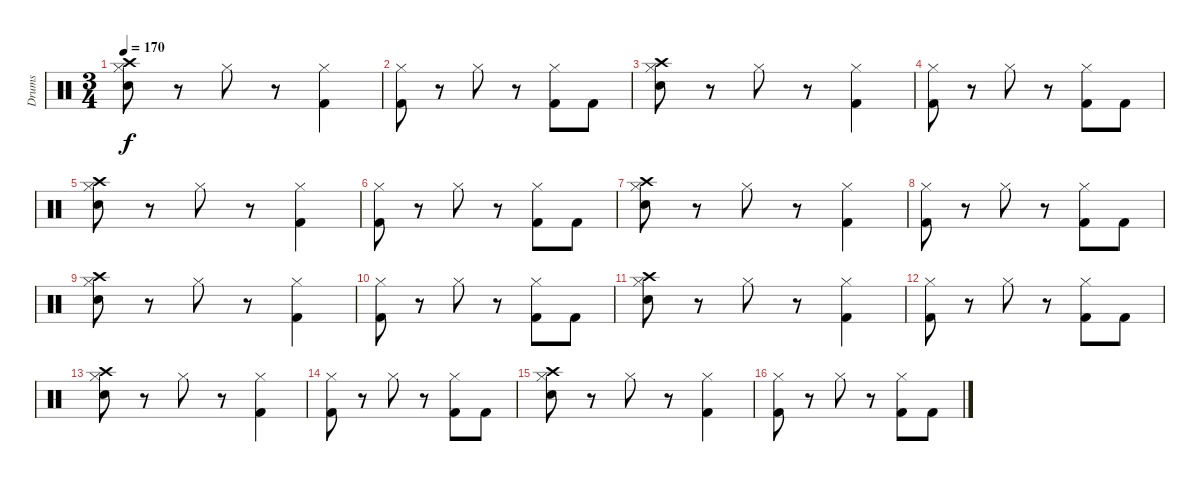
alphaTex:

\track ("Drums" "Drums") {instrument percussion}
\staff {score}
\articulation defaults
\ts (3 4)
\tempo 170
\clef neutral
\ks c
("Hi-Hat (closed)" "Electric Snare (hit)" "Crash high (hit)").8{dy f} r.8 "Hi-Hat (closed)".8 r.8 ("Hi-Hat (closed)" "Kick (hit) 2").4 |
("Hi-Hat (closed)" "Kick (hit) 2").8 r.8 "Hi-Hat (closed)".8 r.8 ("Hi-Hat (closed)" "Kick (hit) 2").8 "Kick (hit) 2".8 |
("Hi-Hat (closed)" "Electric Snare (hit)" "Crash high (hit)").8 r.8 "Hi-Hat (closed)".8 r.8 ("Hi-Hat (closed)" "Kick (hit) 2").4 |
("Hi-Hat (closed)" "Kick (hit) 2").8 r.8 "Hi-Hat (closed)".8 r.8 ("Hi-Hat (closed)" "Kick (hit) 2").8 "Kick (hit) 2".8 |
("Hi-Hat (closed)" "Electric Snare (hit)" "Crash high (hit)").8 r.8 "Hi-Hat (closed)".8 r.8 ("Hi-Hat (closed)" "Kick (hit) 2").4 |
("Hi-Hat (closed)" "Kick (hit) 2").8 r.8 "Hi-Hat (closed)".8 r.8 ("Hi-Hat (closed)" "Kick (hit) 2").8 "Kick (hit) 2".8 |
("Hi-Hat (closed)" "Electric Snare (hit)" "Crash high (hit)").8 r.8 "Hi-Hat (closed)".8 r.8 ("Hi-Hat (closed)" "Kick (hit) 2").4 |
("Hi-Hat (closed)" "Kick (hit) 2").8 r.8 "Hi-Hat (closed)".8 r.8 ("Hi-Hat (closed)" "Kick (hit) 2").8 "Kick (hit) 2".8 |
("Hi-Hat (closed)" "Electric Snare (hit)" "Crash high (hit)").8 r.8 "Hi-Hat (closed)".8 r.8 ("Hi-Hat (closed)" "Kick (hit) 2").4 |
("Hi-Hat (closed)" "Kick (hit) 2").8 r.8 "Hi-Hat (closed)".8 r.8 ("Hi-Hat (closed)" "Kick (hit) 2").8 "Kick (hit) 2".8 |
("Hi-Hat (closed)" "Electric Snare (hit)" "Crash high (hit)").8 r.8 "Hi-Hat (closed)".8 r.8 ("Hi-Hat (closed)" "Kick (hit) 2").4 |
("Hi-Hat (closed)" "Kick (hit) 2").8 r.8 "Hi-Hat (closed)".8 r.8 ("Hi-Hat (closed)" "Kick (hit) 2").8 "Kick (hit) 2".8 |
("Hi-Hat (closed)" "Electric Snare (hit)" "Crash high (hit)").8 r.8 "Hi-Hat (closed)".8 r.8 ("Hi-Hat (closed)" "Kick (hit) 2").4 |
("Hi-Hat (closed)" "Kick (hit) 2").8 r.8 "Hi-Hat (closed)".8 r.8 ("Hi-Hat (closed)" "Kick (hit) 2").8 "Kick (hit) 2".8 |
("Hi-Hat (closed)" "Electric Snare (hit)" "Crash high (hit)").8 r.8 "Hi-Hat (closed)".8 r.8 ("Hi-Hat (closed)" "Kick (hit) 2").4 |
("Hi-Hat (closed)" "Kick (hit) 2").8 r.8 "Hi-Hat (closed)".8 r.8 ("Hi-Hat (closed)" "Kick (hit) 2").8 "Kick (hit) 2".8
